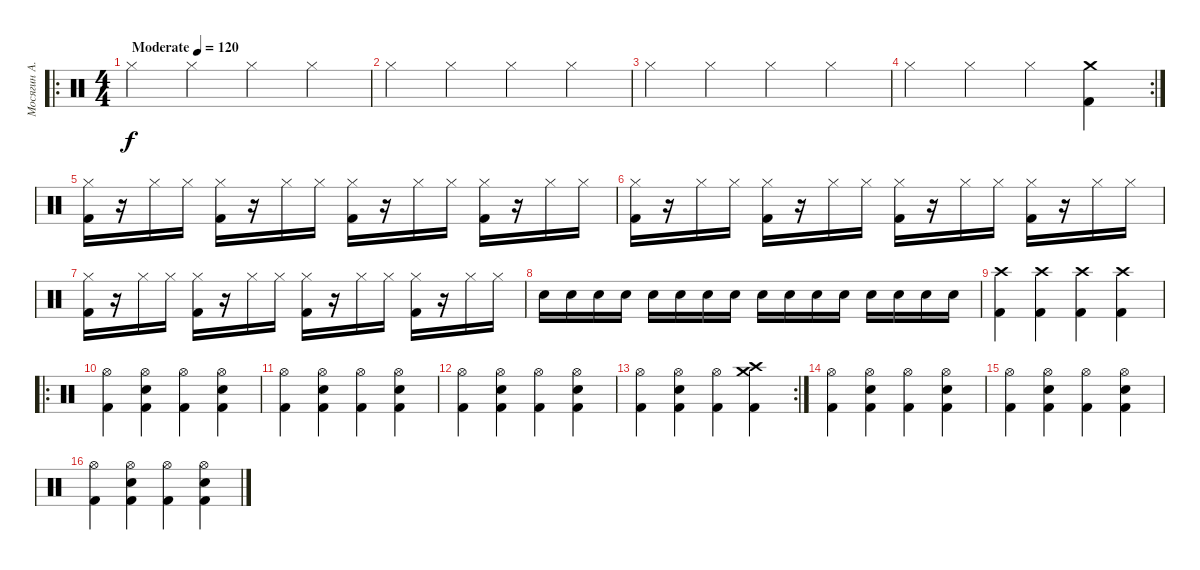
\track ("Мосягин А." "Мосягин А.") {instrument percussion}
\staff {score}
\articulation defaults
\ro
\ts (4 4)
\tempo (120 "Moderate")
\clef neutral
\ks c "Hi-Hat (closed)".4{dy f} "Hi-Hat (closed)".4 "Hi-Hat (closed)".4 "Hi-Hat (closed)".4
|
"Hi-Hat (closed)".4 "Hi-Hat (closed)".4 "Hi-Hat (closed)".4 "Hi-Hat (closed)".4 |
"Hi-Hat (closed)".4 "Hi-Hat (closed)".4 "Hi-Hat (closed)".4 "Hi-Hat (closed)".4 |
\rc 2 "Hi-Hat (closed)".4 "Hi-Hat (closed)".4 "Hi-Hat (closed)".4
("Crash medium (hit)" "Kick (hit) 2").4 |
("Hi-Hat (closed)" "Kick (hit) 2").16 r.16 "Hi-Hat (closed)".16 "Hi-Hat (closed)".16 ("Hi-Hat (closed)" "Kick (hit) 2").16 r.16 "Hi-Hat (closed)".16 "Hi-Hat (closed)".16 ("Hi-Hat (closed)" "Kick (hit) 2").16 r.16 "Hi-Hat (closed)".16 "Hi-Hat (closed)".16 ("Hi-Hat (closed)" "Kick (hit) 2").16 r.16 "Hi-Hat (closed)".16 "Hi-Hat (closed)".16 |
("Hi-Hat (closed)" "Kick (hit) 2").16 r.16 "Hi-Hat (closed)".16 "Hi-Hat (closed)".16 ("Hi-Hat (closed)" "Kick (hit) 2").16 r.16 "Hi-Hat (closed)".16 "Hi-Hat (closed)".16 ("Hi-Hat (closed)" "Kick (hit) 2").16 r.16 "Hi-Hat (closed)".16 "Hi-Hat (closed)".16 ("Hi-Hat (closed)" "Kick (hit) 2").16 r.16 "Hi-Hat (closed)".16 "Hi-Hat (closed)".16 |
("Hi-Hat (closed)" "Kick (hit) 2").16 r.16 "Hi-Hat (closed)".16 "Hi-Hat (closed)".16 ("Hi-Hat (closed)" "Kick (hit) 2").16 r.16 "Hi-Hat (closed)".16 "Hi-Hat (closed)".16 ("Hi-Hat (closed)" "Kick (hit) 2").16 r.16 "Hi-Hat (closed)".16 "Hi-Hat (closed)".16 ("Hi-Hat (closed)" "Kick (hit) 2").16 r.16 "Hi-Hat (closed)".16 "Hi-Hat (closed)".16 |
"Snare (hit) 2".16 "Snare (hit) 2".16 "Snare (hit) 2".16 "Snare (hit) 2".16 "Snare (hit) 2".16 "Snare (hit) 2".16 "Snare (hit) 2".16 "Snare (hit) 2".16 "Snare (hit) 2".16 "Snare (hit) 2".16 "Snare (hit) 2".16 "Snare (hit) 2".16 "Snare (hit) 2".16 "Snare (hit) 2".16 "Snare (hit) 2".16 "Snare (hit) 2".16 |
("Crash high (hit)" "Kick (hit) 2").4 ("Crash high (hit)" "Kick (hit) 2").4 ("Crash high (hit)" "Kick (hit) 2").4 ("Crash high (hit)" "Kick (hit) 2").4 |
\ro
("Hi-Hat (open)" "Kick (hit) 2").4 ("Hi-Hat (open)" "Snare (hit) 2" "Kick (hit) 2").4 ("Hi-Hat (open)" "Kick (hit) 2").4 ("Hi-Hat (open)" "Snare (hit) 2" "Kick (hit) 2").4 |
("Hi-Hat (open)" "Kick (hit) 2").4 ("Hi-Hat (open)" "Snare (hit) 2" "Kick (hit) 2").4 ("Hi-Hat (open)" "Kick (hit) 2").4 ("Hi-Hat (open)" "Snare (hit) 2" "Kick (hit) 2").4 |
("Hi-Hat (open)" "Kick (hit) 2").4 ("Hi-Hat (open)" "Snare (hit) 2" "Kick (hit) 2").4 ("Hi-Hat (open)" "Kick (hit) 2").4 ("Hi-Hat (open)" "Snare (hit) 2" "Kick (hit) 2").4 |
\rc 2
("Hi-Hat (open)" "Kick (hit) 2").4 ("Hi-Hat (open)" "Snare (hit) 2" "Kick (hit) 2").4 ("Hi-Hat (open)" "Kick (hit) 2").4 ("Crash high (hit)" "Crash medium (hit)" "Kick (hit) 2").4 |
("Hi-Hat (open)" "Kick (hit) 2").4 ("Hi-Hat (open)" "Snare (hit) 2" "Kick (hit) 2").4 ("Hi-Hat (open)" "Kick (hit) 2").4 ("Hi-Hat (open)" "Snare (hit) 2" "Kick (hit) 2").4 |
("Hi-Hat (open)" "Kick (hit) 2").4 ("Hi-Hat (open)" "Snare (hit) 2" "Kick (hit) 2").4 ("Hi-Hat (open)" "Kick (hit) 2").4 ("Hi-Hat (open)" "Snare (hit) 2" "Kick (hit) 2").4 |
("Hi-Hat (open)" "Kick (hit) 2").4 ("Hi-Hat (open)" "Snare (hit) 2" "Kick (hit) 2").4 ("Hi-Hat (open)" "Kick (hit) 2").4 ("Hi-Hat (open)" "Snare (hit) 2" "Kick (hit) 2").4
